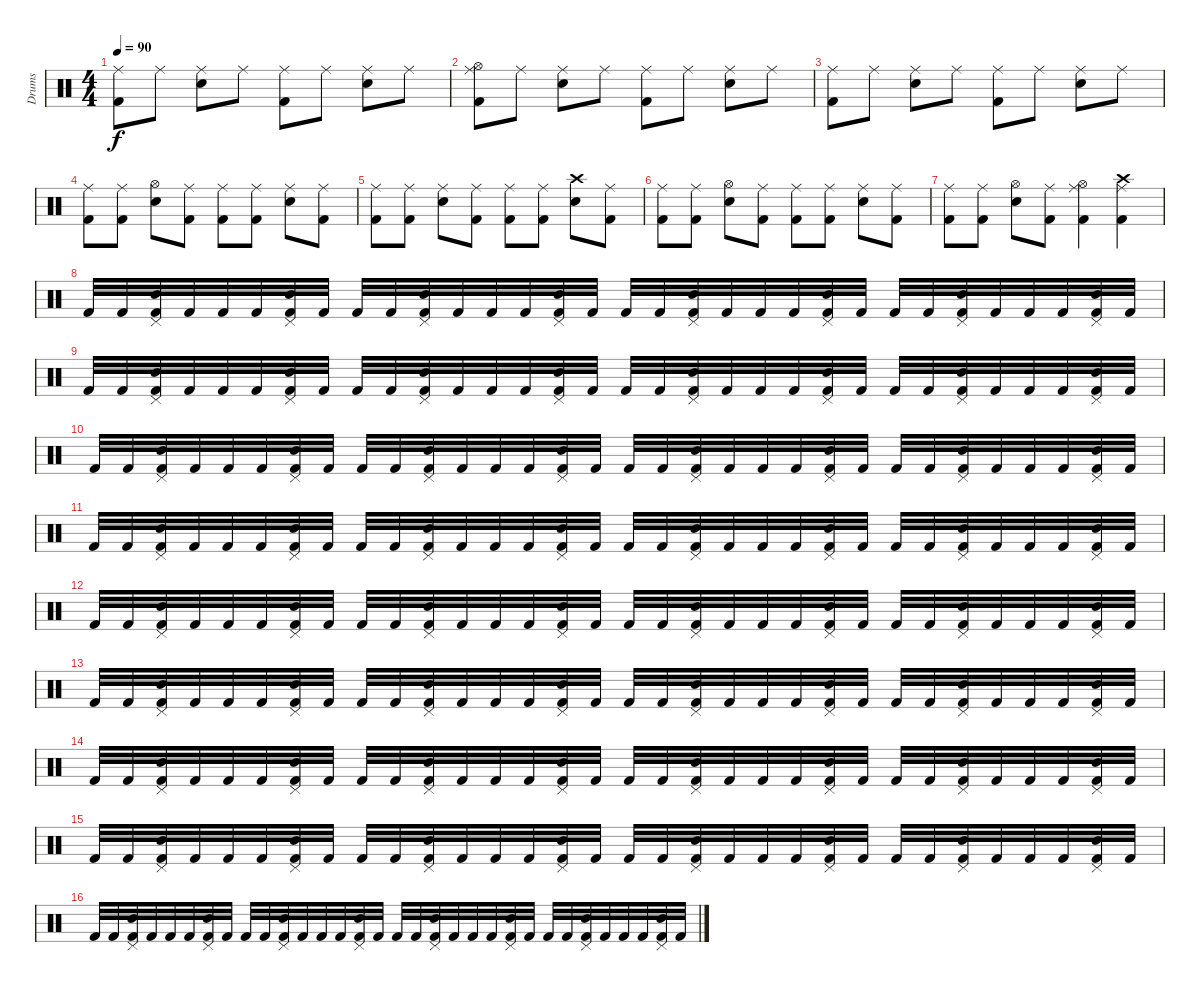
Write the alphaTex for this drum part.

\track ("Drums" "Drums") {instrument percussion}
\staff {score}
\articulation defaults
\ts (4 4)
\tempo 90
\clef neutral
\ks c
("Ride (middle)" "Kick (hit) 2").8{dy f} "Ride (middle)".8 ("Ride (middle)" "Snare (hit) 2").8 "Ride (middle)".8 ("Ride (middle)" "Kick (hit) 2").8 "Ride (middle)".8 ("Ride (middle)" "Snare (hit) 2").8 "Ride (middle)".8 |
("Hi-Hat (open)" "Ride (middle)" "Kick (hit) 2").8 "Ride (middle)".8 ("Ride (middle)" "Snare (hit) 2").8 "Ride (middle)".8 ("Ride (middle)" "Kick (hit) 2").8 "Ride (middle)".8 ("Ride (middle)" "Snare (hit) 2").8 "Ride (middle)".8 |
("Ride (middle)" "Kick (hit) 2").8 "Ride (middle)".8 ("Ride (middle)" "Snare (hit) 2").8 "Ride (middle)".8 ("Ride (middle)" "Kick (hit) 2").8 "Ride (middle)".8 ("Ride (middle)" "Snare (hit) 2").8 "Ride (middle)".8 |
("Ride (middle)" "Kick (hit) 2").8 ("Ride (middle)" "Kick (hit) 2").8 ("Hi-Hat (open)" "Snare (hit) 2").8 ("Ride (middle)" "Kick (hit) 2").8 ("Ride (middle)" "Kick (hit) 2").8 ("Ride (middle)" "Kick (hit) 2").8 ("Ride (middle)" "Snare (hit) 2").8 ("Ride (middle)" "Kick (hit) 2").8 |
("Ride (middle)" "Kick (hit) 2").8 ("Ride (middle)" "Kick (hit) 2").8 ("Ride (middle)" "Snare (hit) 2").8 ("Ride (middle)" "Kick (hit) 2").8 ("Ride (middle)" "Kick (hit) 2").8 ("Ride (middle)" "Kick (hit) 2").8 ("Crash high (hit)" "Snare (hit) 2").8 ("Ride (middle)" "Kick (hit) 2").8 |
("Ride (middle)" "Kick (hit) 2").8 ("Ride (middle)" "Kick (hit) 2").8 ("Hi-Hat (open)" "Snare (hit) 2").8 ("Ride (middle)" "Kick (hit) 2").8 ("Ride (middle)" "Kick (hit) 2").8 ("Ride (middle)" "Kick (hit) 2").8 ("Ride (middle)" "Snare (hit) 2").8 ("Ride (middle)" "Kick (hit) 2").8 |
("Ride (middle)" "Kick (hit) 2").8 ("Ride (middle)" "Kick (hit) 2").8 ("Hi-Hat (open)" "Snare (hit) 2").8 ("Ride (middle)" "Kick (hit) 2").8 ("Hi-Hat (open)" "Ride (middle)" "Kick (hit) 2").4 ("Crash high (hit)" "Ride (middle)" "Kick (hit) 2").4 |
"Kick (hit) 2".32 "Kick (hit) 2".32 ("Pedal Hi-Hat (hit)" "Snare (hit) 2" "Kick (hit) 2").32 "Kick (hit) 2".32 "Kick (hit) 2".32 "Kick (hit) 2".32 ("Pedal Hi-Hat (hit)" "Snare (hit) 2" "Kick (hit) 2").32 "Kick (hit) 2".32 "Kick (hit) 2".32 "Kick (hit) 2".32 ("Pedal Hi-Hat (hit)" "Snare (hit) 2" "Kick (hit) 2").32 "Kick (hit) 2".32 "Kick (hit) 2".32 "Kick (hit) 2".32 ("Pedal Hi-Hat (hit)" "Snare (hit) 2" "Kick (hit) 2").32 "Kick (hit) 2".32 "Kick (hit) 2".32 "Kick (hit) 2".32 ("Pedal Hi-Hat (hit)" "Snare (hit) 2" "Kick (hit) 2").32 "Kick (hit) 2".32 "Kick (hit) 2".32 "Kick (hit) 2".32 ("Pedal Hi-Hat (hit)" "Snare (hit) 2" "Kick (hit) 2").32 "Kick (hit) 2".32 "Kick (hit) 2".32 "Kick (hit) 2".32 ("Pedal Hi-Hat (hit)" "Snare (hit) 2" "Kick (hit) 2").32 "Kick (hit) 2".32 "Kick (hit) 2".32 "Kick (hit) 2".32 ("Pedal Hi-Hat (hit)" "Snare (hit) 2" "Kick (hit) 2").32 "Kick (hit) 2".32 |
"Kick (hit) 2".32 "Kick (hit) 2".32 ("Pedal Hi-Hat (hit)" "Snare (hit) 2" "Kick (hit) 2").32 "Kick (hit) 2".32 "Kick (hit) 2".32 "Kick (hit) 2".32 ("Pedal Hi-Hat (hit)" "Snare (hit) 2" "Kick (hit) 2").32 "Kick (hit) 2".32 "Kick (hit) 2".32 "Kick (hit) 2".32 ("Pedal Hi-Hat (hit)" "Snare (hit) 2" "Kick (hit) 2").32 "Kick (hit) 2".32 "Kick (hit) 2".32 "Kick (hit) 2".32 ("Pedal Hi-Hat (hit)" "Snare (hit) 2" "Kick (hit) 2").32 "Kick (hit) 2".32 "Kick (hit) 2".32 "Kick (hit) 2".32 ("Pedal Hi-Hat (hit)" "Snare (hit) 2" "Kick (hit) 2").32 "Kick (hit) 2".32 "Kick (hit) 2".32 "Kick (hit) 2".32 ("Pedal Hi-Hat (hit)" "Snare (hit) 2" "Kick (hit) 2").32 "Kick (hit) 2".32 "Kick (hit) 2".32 "Kick (hit) 2".32 ("Pedal Hi-Hat (hit)" "Snare (hit) 2" "Kick (hit) 2").32 "Kick (hit) 2".32 "Kick (hit) 2".32 "Kick (hit) 2".32 ("Pedal Hi-Hat (hit)" "Snare (hit) 2" "Kick (hit) 2").32 "Kick (hit) 2".32 |
"Kick (hit) 2".32 "Kick (hit) 2".32 ("Pedal Hi-Hat (hit)" "Snare (hit) 2" "Kick (hit) 2").32 "Kick (hit) 2".32 "Kick (hit) 2".32 "Kick (hit) 2".32 ("Pedal Hi-Hat (hit)" "Snare (hit) 2" "Kick (hit) 2").32 "Kick (hit) 2".32 "Kick (hit) 2".32 "Kick (hit) 2".32 ("Pedal Hi-Hat (hit)" "Snare (hit) 2" "Kick (hit) 2").32 "Kick (hit) 2".32 "Kick (hit) 2".32 "Kick (hit) 2".32 ("Pedal Hi-Hat (hit)" "Snare (hit) 2" "Kick (hit) 2").32 "Kick (hit) 2".32 "Kick (hit) 2".32 "Kick (hit) 2".32 ("Pedal Hi-Hat (hit)" "Snare (hit) 2" "Kick (hit) 2").32 "Kick (hit) 2".32 "Kick (hit) 2".32 "Kick (hit) 2".32 ("Pedal Hi-Hat (hit)" "Snare (hit) 2" "Kick (hit) 2").32 "Kick (hit) 2".32 "Kick (hit) 2".32 "Kick (hit) 2".32 ("Pedal Hi-Hat (hit)" "Snare (hit) 2" "Kick (hit) 2").32 "Kick (hit) 2".32 "Kick (hit) 2".32 "Kick (hit) 2".32 ("Pedal Hi-Hat (hit)" "Snare (hit) 2" "Kick (hit) 2").32 "Kick (hit) 2".32 |
"Kick (hit) 2".32 "Kick (hit) 2".32 ("Pedal Hi-Hat (hit)" "Snare (hit) 2" "Kick (hit) 2").32 "Kick (hit) 2".32 "Kick (hit) 2".32 "Kick (hit) 2".32 ("Pedal Hi-Hat (hit)" "Snare (hit) 2" "Kick (hit) 2").32 "Kick (hit) 2".32 "Kick (hit) 2".32 "Kick (hit) 2".32 ("Pedal Hi-Hat (hit)" "Snare (hit) 2" "Kick (hit) 2").32 "Kick (hit) 2".32 "Kick (hit) 2".32 "Kick (hit) 2".32 ("Pedal Hi-Hat (hit)" "Snare (hit) 2" "Kick (hit) 2").32 "Kick (hit) 2".32 "Kick (hit) 2".32 "Kick (hit) 2".32 ("Pedal Hi-Hat (hit)" "Snare (hit) 2" "Kick (hit) 2").32 "Kick (hit) 2".32 "Kick (hit) 2".32 "Kick (hit) 2".32 ("Pedal Hi-Hat (hit)" "Snare (hit) 2" "Kick (hit) 2").32 "Kick (hit) 2".32 "Kick (hit) 2".32 "Kick (hit) 2".32 ("Pedal Hi-Hat (hit)" "Snare (hit) 2" "Kick (hit) 2").32 "Kick (hit) 2".32 "Kick (hit) 2".32 "Kick (hit) 2".32 ("Pedal Hi-Hat (hit)" "Snare (hit) 2" "Kick (hit) 2").32 "Kick (hit) 2".32 |
"Kick (hit) 2".32 "Kick (hit) 2".32 ("Pedal Hi-Hat (hit)" "Snare (hit) 2" "Kick (hit) 2").32 "Kick (hit) 2".32 "Kick (hit) 2".32 "Kick (hit) 2".32 ("Pedal Hi-Hat (hit)" "Snare (hit) 2" "Kick (hit) 2").32 "Kick (hit) 2".32 "Kick (hit) 2".32 "Kick (hit) 2".32 ("Pedal Hi-Hat (hit)" "Snare (hit) 2" "Kick (hit) 2").32 "Kick (hit) 2".32 "Kick (hit) 2".32 "Kick (hit) 2".32 ("Pedal Hi-Hat (hit)" "Snare (hit) 2" "Kick (hit) 2").32 "Kick (hit) 2".32 "Kick (hit) 2".32 "Kick (hit) 2".32 ("Pedal Hi-Hat (hit)" "Snare (hit) 2" "Kick (hit) 2").32 "Kick (hit) 2".32 "Kick (hit) 2".32 "Kick (hit) 2".32 ("Pedal Hi-Hat (hit)" "Snare (hit) 2" "Kick (hit) 2").32 "Kick (hit) 2".32 "Kick (hit) 2".32 "Kick (hit) 2".32 ("Pedal Hi-Hat (hit)" "Snare (hit) 2" "Kick (hit) 2").32 "Kick (hit) 2".32 "Kick (hit) 2".32 "Kick (hit) 2".32 ("Pedal Hi-Hat (hit)" "Snare (hit) 2" "Kick (hit) 2").32 "Kick (hit) 2".32 |
"Kick (hit) 2".32 "Kick (hit) 2".32 ("Pedal Hi-Hat (hit)" "Snare (hit) 2" "Kick (hit) 2").32 "Kick (hit) 2".32 "Kick (hit) 2".32 "Kick (hit) 2".32 ("Pedal Hi-Hat (hit)" "Snare (hit) 2" "Kick (hit) 2").32 "Kick (hit) 2".32 "Kick (hit) 2".32 "Kick (hit) 2".32 ("Pedal Hi-Hat (hit)" "Snare (hit) 2" "Kick (hit) 2").32 "Kick (hit) 2".32 "Kick (hit) 2".32 "Kick (hit) 2".32 ("Pedal Hi-Hat (hit)" "Snare (hit) 2" "Kick (hit) 2").32 "Kick (hit) 2".32 "Kick (hit) 2".32 "Kick (hit) 2".32 ("Pedal Hi-Hat (hit)" "Snare (hit) 2" "Kick (hit) 2").32 "Kick (hit) 2".32 "Kick (hit) 2".32 "Kick (hit) 2".32 ("Pedal Hi-Hat (hit)" "Snare (hit) 2" "Kick (hit) 2").32 "Kick (hit) 2".32 "Kick (hit) 2".32 "Kick (hit) 2".32 ("Pedal Hi-Hat (hit)" "Snare (hit) 2" "Kick (hit) 2").32 "Kick (hit) 2".32 "Kick (hit) 2".32 "Kick (hit) 2".32 ("Pedal Hi-Hat (hit)" "Snare (hit) 2" "Kick (hit) 2").32 "Kick (hit) 2".32 |
"Kick (hit) 2".32 "Kick (hit) 2".32 ("Pedal Hi-Hat (hit)" "Snare (hit) 2" "Kick (hit) 2").32 "Kick (hit) 2".32 "Kick (hit) 2".32 "Kick (hit) 2".32 ("Pedal Hi-Hat (hit)" "Snare (hit) 2" "Kick (hit) 2").32 "Kick (hit) 2".32 "Kick (hit) 2".32 "Kick (hit) 2".32 ("Pedal Hi-Hat (hit)" "Snare (hit) 2" "Kick (hit) 2").32 "Kick (hit) 2".32 "Kick (hit) 2".32 "Kick (hit) 2".32 ("Pedal Hi-Hat (hit)" "Snare (hit) 2" "Kick (hit) 2").32 "Kick (hit) 2".32 "Kick (hit) 2".32 "Kick (hit) 2".32 ("Pedal Hi-Hat (hit)" "Snare (hit) 2" "Kick (hit) 2").32 "Kick (hit) 2".32 "Kick (hit) 2".32 "Kick (hit) 2".32 ("Pedal Hi-Hat (hit)" "Snare (hit) 2" "Kick (hit) 2").32 "Kick (hit) 2".32 "Kick (hit) 2".32 "Kick (hit) 2".32 ("Pedal Hi-Hat (hit)" "Snare (hit) 2" "Kick (hit) 2").32 "Kick (hit) 2".32 "Kick (hit) 2".32 "Kick (hit) 2".32 ("Pedal Hi-Hat (hit)" "Snare (hit) 2" "Kick (hit) 2").32 "Kick (hit) 2".32 |
"Kick (hit) 2".32 "Kick (hit) 2".32 ("Pedal Hi-Hat (hit)" "Snare (hit) 2" "Kick (hit) 2").32 "Kick (hit) 2".32 "Kick (hit) 2".32 "Kick (hit) 2".32 ("Pedal Hi-Hat (hit)" "Snare (hit) 2" "Kick (hit) 2").32 "Kick (hit) 2".32 "Kick (hit) 2".32 "Kick (hit) 2".32 ("Pedal Hi-Hat (hit)" "Snare (hit) 2" "Kick (hit) 2").32 "Kick (hit) 2".32 "Kick (hit) 2".32 "Kick (hit) 2".32 ("Pedal Hi-Hat (hit)" "Snare (hit) 2" "Kick (hit) 2").32 "Kick (hit) 2".32 "Kick (hit) 2".32 "Kick (hit) 2".32 ("Pedal Hi-Hat (hit)" "Snare (hit) 2" "Kick (hit) 2").32 "Kick (hit) 2".32 "Kick (hit) 2".32 "Kick (hit) 2".32 ("Pedal Hi-Hat (hit)" "Snare (hit) 2" "Kick (hit) 2").32 "Kick (hit) 2".32 "Kick (hit) 2".32 "Kick (hit) 2".32 ("Pedal Hi-Hat (hit)" "Snare (hit) 2" "Kick (hit) 2").32 "Kick (hit) 2".32 "Kick (hit) 2".32 "Kick (hit) 2".32 ("Pedal Hi-Hat (hit)" "Snare (hit) 2" "Kick (hit) 2").32 "Kick (hit) 2".32 |
"Kick (hit) 2".32 "Kick (hit) 2".32 ("Pedal Hi-Hat (hit)" "Snare (hit) 2" "Kick (hit) 2").32 "Kick (hit) 2".32 "Kick (hit) 2".32 "Kick (hit) 2".32 ("Pedal Hi-Hat (hit)" "Snare (hit) 2" "Kick (hit) 2").32 "Kick (hit) 2".32 "Kick (hit) 2".32 "Kick (hit) 2".32 ("Pedal Hi-Hat (hit)" "Snare (hit) 2" "Kick (hit) 2").32 "Kick (hit) 2".32 "Kick (hit) 2".32 "Kick (hit) 2".32 ("Pedal Hi-Hat (hit)" "Snare (hit) 2" "Kick (hit) 2").32 "Kick (hit) 2".32 "Kick (hit) 2".32 "Kick (hit) 2".32 ("Pedal Hi-Hat (hit)" "Snare (hit) 2" "Kick (hit) 2").32 "Kick (hit) 2".32 "Kick (hit) 2".32 "Kick (hit) 2".32 ("Pedal Hi-Hat (hit)" "Snare (hit) 2" "Kick (hit) 2").32 "Kick (hit) 2".32 "Kick (hit) 2".32 "Kick (hit) 2".32 ("Pedal Hi-Hat (hit)" "Snare (hit) 2" "Kick (hit) 2").32 "Kick (hit) 2".32 "Kick (hit) 2".32 "Kick (hit) 2".32 ("Pedal Hi-Hat (hit)" "Snare (hit) 2" "Kick (hit) 2").32 "Kick (hit) 2".32
